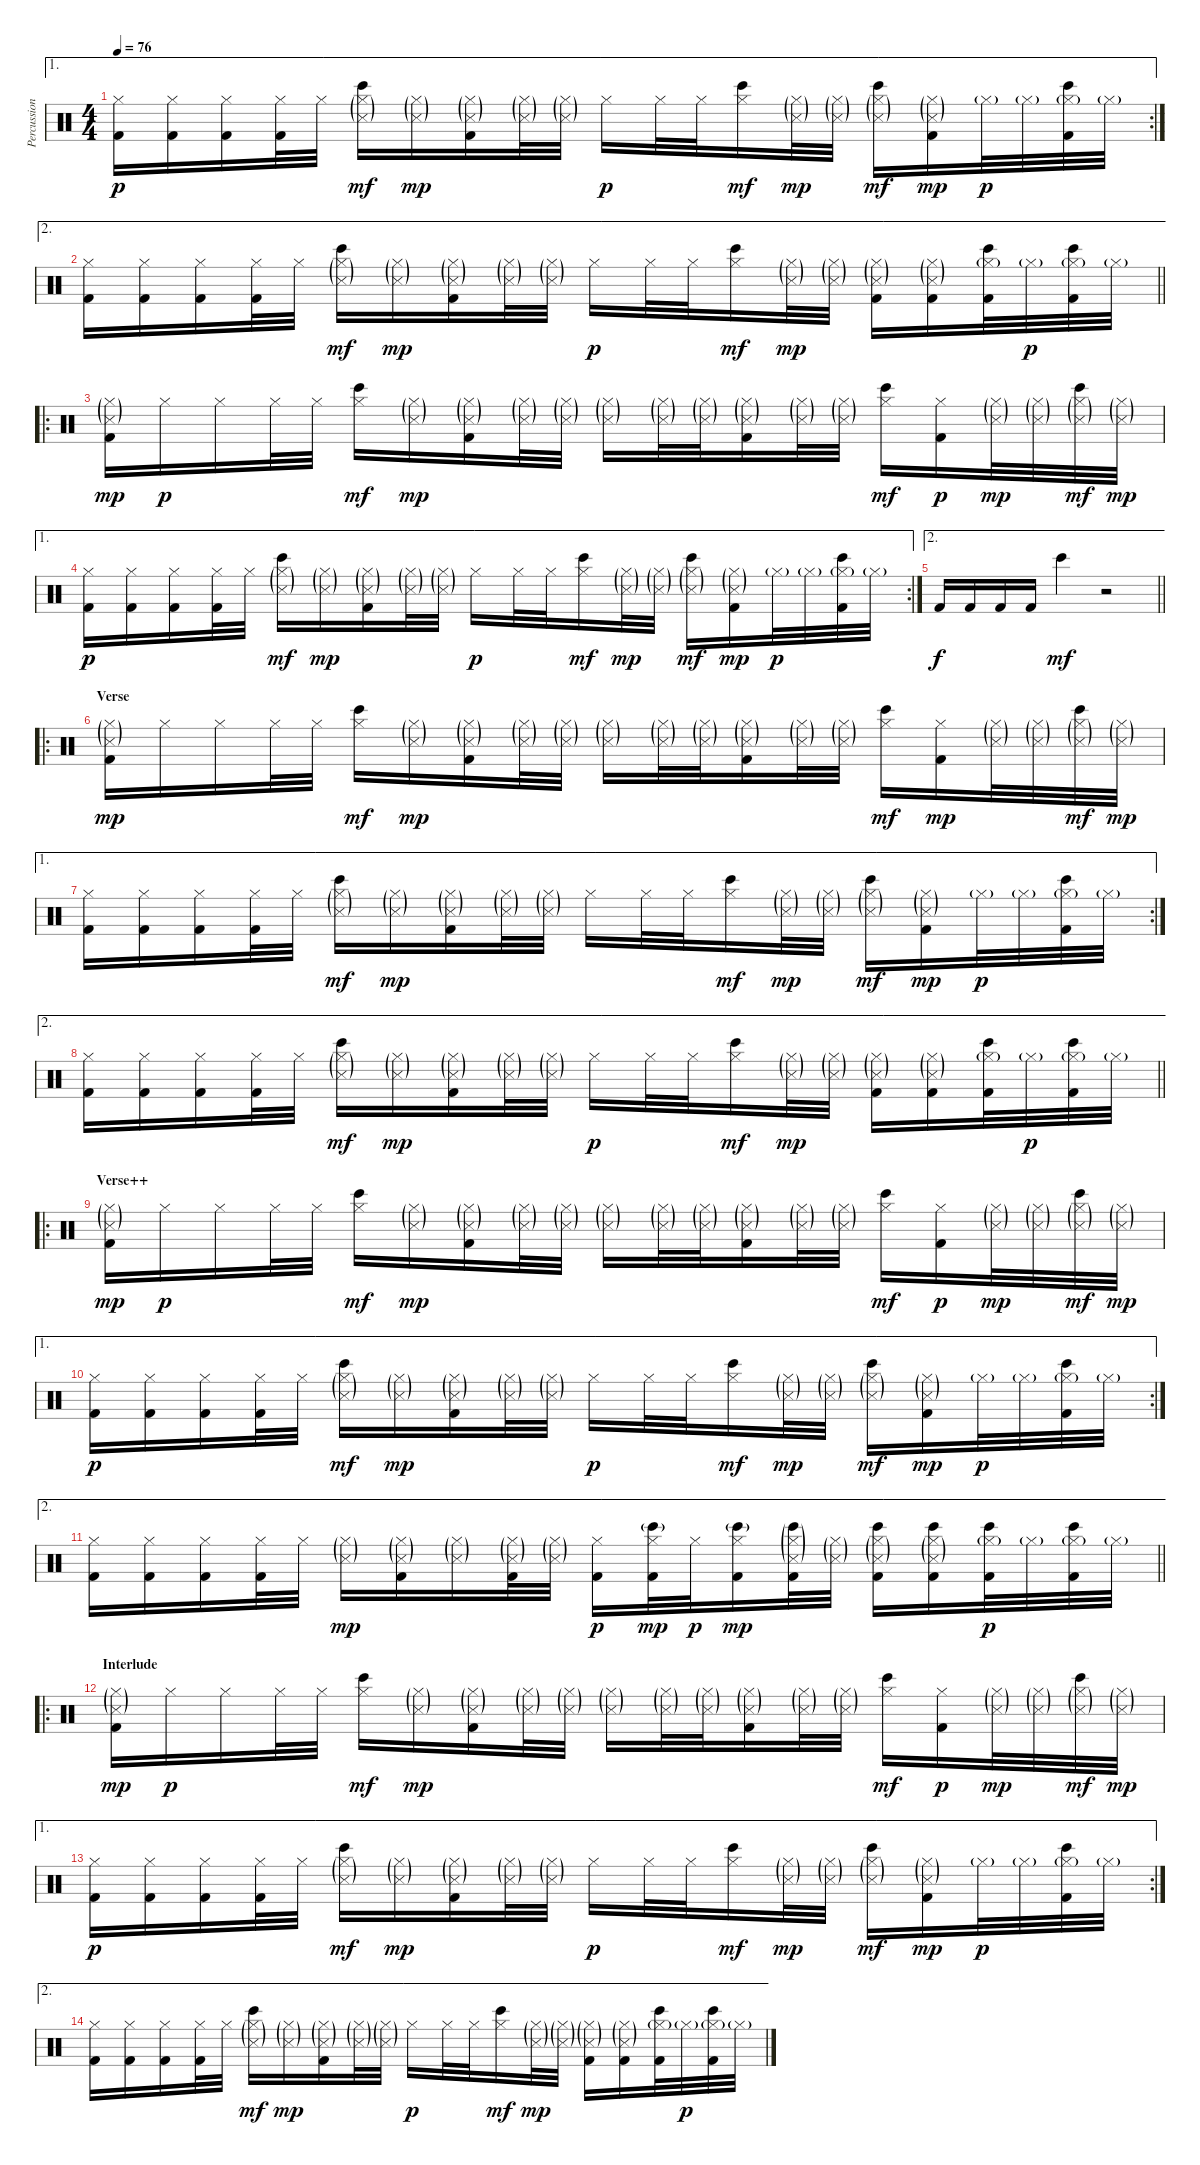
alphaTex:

\track ("Percussion" "Percussion") {instrument percussion}
\staff {score}
\articulation defaults
\ae 1
\rc 2
\ts (4 4)
\tempo 76
\clef neutral
\ks c
("Hi-Hat (closed)" "Kick (hit) 2").16{dy p} ("Hi-Hat (closed)" "Kick (hit) 2").16 ("Hi-Hat (closed)" "Kick (hit) 2").16 ("Hi-Hat (closed)" "Kick (hit) 2").32 "Hi-Hat (closed)".32 ("Hi-Hat (closed)"{g} "Snare (side stick) 3"{g} "Bongo High (hit)").16{dy mf} ("Hi-Hat (closed)"{g} "Snare (side stick) 3"{g}).16{dy mp} ("Hi-Hat (closed)"{g} "Snare (side stick) 3"{g} "Kick (hit) 2").16 ("Hi-Hat (closed)"{g} "Snare (side stick) 3"{g}).32 ("Hi-Hat (closed)"{g} "Snare (side stick) 3"{g}).32 "Hi-Hat (closed)".16{dy p} "Hi-Hat (closed)".32 "Hi-Hat (closed)".32 ("Hi-Hat (closed)" "Bongo High (hit)").16{dy mf} ("Hi-Hat (closed)"{g} "Snare (side stick) 3"{g}).32{dy mp} ("Hi-Hat (closed)"{g} "Snare (side stick) 3"{g}).32 ("Hi-Hat (closed)"{g} "Snare (side stick) 3"{g} "Bongo High (hit)").16{dy mf} ("Hi-Hat (closed)"{g} "Snare (side stick) 3"{g} "Kick (hit) 2").16{dy mp} "Hi-Hat (closed)"{g}.32{dy p} "Hi-Hat (closed)"{g}.32 ("Hi-Hat (closed)"{g} "Bongo High (hit)" "Kick (hit) 2").32 "Hi-Hat (closed)"{g}.32 |
\ae 2
\barLineRight lightlight
("Hi-Hat (closed)" "Kick (hit) 2").16 ("Hi-Hat (closed)" "Kick (hit) 2").16 ("Hi-Hat (closed)" "Kick (hit) 2").16 ("Hi-Hat (closed)" "Kick (hit) 2").32 "Hi-Hat (closed)".32 ("Hi-Hat (closed)"{g} "Snare (side stick) 3"{g} "Bongo High (hit)").16{dy mf} ("Hi-Hat (closed)"{g} "Snare (side stick) 3"{g}).16{dy mp} ("Hi-Hat (closed)"{g} "Snare (side stick) 3"{g} "Kick (hit) 2").16 ("Hi-Hat (closed)"{g} "Snare (side stick) 3"{g}).32 ("Hi-Hat (closed)"{g} "Snare (side stick) 3"{g}).32 "Hi-Hat (closed)".16{dy p} "Hi-Hat (closed)".32 "Hi-Hat (closed)".32 ("Hi-Hat (closed)" "Bongo High (hit)").16{dy mf} ("Hi-Hat (closed)"{g} "Snare (side stick) 3"{g}).32{dy mp} ("Hi-Hat (closed)"{g} "Snare (side stick) 3"{g}).32 ("Hi-Hat (closed)"{g} "Snare (side stick) 3"{g} "Kick (hit) 2").16 ("Hi-Hat (closed)"{g} "Snare (side stick) 3"{g} "Kick (hit) 2").16 ("Hi-Hat (closed)"{g} "Bongo High (hit)" "Kick (hit) 2").32 "Hi-Hat (closed)"{g}.32{dy p} ("Hi-Hat (closed)"{g} "Bongo High (hit)" "Kick (hit) 2").32 "Hi-Hat (closed)"{g}.32 |
\ro
("Hi-Hat (closed)"{g} "Snare (side stick) 3"{g} "Kick (hit) 2").16{dy mp} "Hi-Hat (closed)".16{dy p} "Hi-Hat (closed)".16 "Hi-Hat (closed)".32 "Hi-Hat (closed)".32 ("Hi-Hat (closed)" "Bongo High (hit)").16{dy mf} ("Hi-Hat (closed)"{g} "Snare (side stick) 3"{g}).16{dy mp} ("Hi-Hat (closed)"{g} "Snare (side stick) 3"{g} "Kick (hit) 2").16 ("Hi-Hat (closed)"{g} "Snare (side stick) 3"{g}).32 ("Hi-Hat (closed)"{g} "Snare (side stick) 3"{g}).32 ("Hi-Hat (closed)"{g} "Snare (side stick) 3"{g}).16 ("Hi-Hat (closed)"{g} "Snare (side stick) 3"{g}).32 ("Hi-Hat (closed)"{g} "Snare (side stick) 3"{g}).32 ("Hi-Hat (closed)"{g} "Snare (side stick) 3"{g} "Kick (hit) 2").16 ("Hi-Hat (closed)"{g} "Snare (side stick) 3"{g}).32 ("Hi-Hat (closed)"{g} "Snare (side stick) 3"{g}).32 ("Hi-Hat (closed)" "Bongo High (hit)").16{dy mf} ("Hi-Hat (closed)" "Kick (hit) 2").16{dy p} ("Hi-Hat (closed)"{g} "Snare (side stick) 3"{g}).32{dy mp} ("Hi-Hat (closed)"{g} "Snare (side stick) 3"{g}).32 ("Hi-Hat (closed)"{g} "Snare (side stick) 3"{g} "Bongo High (hit)").32{dy mf} ("Hi-Hat (closed)"{g} "Snare (side stick) 3"{g}).32{dy mp} |
\ae 1
\rc 2
("Hi-Hat (closed)" "Kick (hit) 2").16{dy p} ("Hi-Hat (closed)" "Kick (hit) 2").16 ("Hi-Hat (closed)" "Kick (hit) 2").16 ("Hi-Hat (closed)" "Kick (hit) 2").32 "Hi-Hat (closed)".32 ("Hi-Hat (closed)"{g} "Snare (side stick) 3"{g} "Bongo High (hit)").16{dy mf} ("Hi-Hat (closed)"{g} "Snare (side stick) 3"{g}).16{dy mp} ("Hi-Hat (closed)"{g} "Snare (side stick) 3"{g} "Kick (hit) 2").16 ("Hi-Hat (closed)"{g} "Snare (side stick) 3"{g}).32 ("Hi-Hat (closed)"{g} "Snare (side stick) 3"{g}).32 "Hi-Hat (closed)".16{dy p} "Hi-Hat (closed)".32 "Hi-Hat (closed)".32 ("Hi-Hat (closed)" "Bongo High (hit)").16{dy mf} ("Hi-Hat (closed)"{g} "Snare (side stick) 3"{g}).32{dy mp} ("Hi-Hat (closed)"{g} "Snare (side stick) 3"{g}).32 ("Hi-Hat (closed)"{g} "Snare (side stick) 3"{g} "Bongo High (hit)").16{dy mf} ("Hi-Hat (closed)"{g} "Snare (side stick) 3"{g} "Kick (hit) 2").16{dy mp} "Hi-Hat (closed)"{g}.32{dy p} "Hi-Hat (closed)"{g}.32 ("Hi-Hat (closed)"{g} "Bongo High (hit)" "Kick (hit) 2").32 "Hi-Hat (closed)"{g}.32 |
\ae 2
\barLineRight lightlight "Kick (hit) 2".16{dy f} "Kick (hit) 2".16 "Kick (hit) 2".16 "Kick (hit) 2".16 "Bongo High (hit)".4{dy mf}
r.2 |
\ro
\section ("" "Verse")
("Hi-Hat (closed)"{g} "Snare (side stick) 3"{g} "Kick (hit) 2").16{dy mp} "Hi-Hat (closed)".16 "Hi-Hat (closed)".16 "Hi-Hat (closed)".32 "Hi-Hat (closed)".32 ("Hi-Hat (closed)" "Bongo High (hit)").16{dy mf} ("Hi-Hat (closed)"{g} "Snare (side stick) 3"{g}).16{dy mp} ("Hi-Hat (closed)"{g} "Snare (side stick) 3"{g} "Kick (hit) 2").16 ("Hi-Hat (closed)"{g} "Snare (side stick) 3"{g}).32 ("Hi-Hat (closed)"{g} "Snare (side stick) 3"{g}).32 ("Hi-Hat (closed)"{g} "Snare (side stick) 3"{g}).16 ("Hi-Hat (closed)"{g} "Snare (side stick) 3"{g}).32 ("Hi-Hat (closed)"{g} "Snare (side stick) 3"{g}).32 ("Hi-Hat (closed)"{g} "Snare (side stick) 3"{g} "Kick (hit) 2").16 ("Hi-Hat (closed)"{g} "Snare (side stick) 3"{g}).32 ("Hi-Hat (closed)"{g} "Snare (side stick) 3"{g}).32 ("Hi-Hat (closed)" "Bongo High (hit)").16{dy mf} ("Hi-Hat (closed)" "Kick (hit) 2").16{dy mp} ("Hi-Hat (closed)"{g} "Snare (side stick) 3"{g}).32 ("Hi-Hat (closed)"{g} "Snare (side stick) 3"{g}).32 ("Hi-Hat (closed)"{g} "Snare (side stick) 3"{g} "Bongo High (hit)").32{dy mf} ("Hi-Hat (closed)"{g} "Snare (side stick) 3"{g}).32{dy mp} |
\ae 1
\rc 2
("Hi-Hat (closed)" "Kick (hit) 2").16 ("Hi-Hat (closed)" "Kick (hit) 2").16 ("Hi-Hat (closed)" "Kick (hit) 2").16 ("Hi-Hat (closed)" "Kick (hit) 2").32 "Hi-Hat (closed)".32 ("Hi-Hat (closed)"{g} "Snare (side stick) 3"{g} "Bongo High (hit)").16{dy mf} ("Hi-Hat (closed)"{g} "Snare (side stick) 3"{g}).16{dy mp} ("Hi-Hat (closed)"{g} "Snare (side stick) 3"{g} "Kick (hit) 2").16 ("Hi-Hat (closed)"{g} "Snare (side stick) 3"{g}).32 ("Hi-Hat (closed)"{g} "Snare (side stick) 3"{g}).32 "Hi-Hat (closed)".16 "Hi-Hat (closed)".32 "Hi-Hat (closed)".32 ("Hi-Hat (closed)" "Bongo High (hit)").16{dy mf} ("Hi-Hat (closed)"{g} "Snare (side stick) 3"{g}).32{dy mp} ("Hi-Hat (closed)"{g} "Snare (side stick) 3"{g}).32 ("Hi-Hat (closed)"{g} "Snare (side stick) 3"{g} "Bongo High (hit)").16{dy mf} ("Hi-Hat (closed)"{g} "Snare (side stick) 3"{g} "Kick (hit) 2").16{dy mp} "Hi-Hat (closed)"{g}.32{dy p} "Hi-Hat (closed)"{g}.32 ("Hi-Hat (closed)"{g} "Bongo High (hit)" "Kick (hit) 2").32 "Hi-Hat (closed)"{g}.32 |
\ae 2
\barLineRight lightlight
("Hi-Hat (closed)" "Kick (hit) 2").16 ("Hi-Hat (closed)" "Kick (hit) 2").16 ("Hi-Hat (closed)" "Kick (hit) 2").16 ("Hi-Hat (closed)" "Kick (hit) 2").32 "Hi-Hat (closed)".32 ("Hi-Hat (closed)"{g} "Snare (side stick) 3"{g} "Bongo High (hit)").16{dy mf} ("Hi-Hat (closed)"{g} "Snare (side stick) 3"{g}).16{dy mp} ("Hi-Hat (closed)"{g} "Snare (side stick) 3"{g} "Kick (hit) 2").16 ("Hi-Hat (closed)"{g} "Snare (side stick) 3"{g}).32 ("Hi-Hat (closed)"{g} "Snare (side stick) 3"{g}).32 "Hi-Hat (closed)".16{dy p} "Hi-Hat (closed)".32 "Hi-Hat (closed)".32 ("Hi-Hat (closed)" "Bongo High (hit)").16{dy mf} ("Hi-Hat (closed)"{g} "Snare (side stick) 3"{g}).32{dy mp} ("Hi-Hat (closed)"{g} "Snare (side stick) 3"{g}).32 ("Hi-Hat (closed)"{g} "Snare (side stick) 3"{g} "Kick (hit) 2").16 ("Hi-Hat (closed)"{g} "Snare (side stick) 3"{g} "Kick (hit) 2").16 ("Hi-Hat (closed)"{g} "Bongo High (hit)" "Kick (hit) 2").32 "Hi-Hat (closed)"{g}.32{dy p} ("Hi-Hat (closed)"{g} "Bongo High (hit)" "Kick (hit) 2").32 "Hi-Hat (closed)"{g}.32 |
\ro
\section ("" "Verse++")
("Hi-Hat (closed)"{g} "Snare (side stick) 3"{g} "Kick (hit) 2").16{dy mp} "Hi-Hat (closed)".16{dy p} "Hi-Hat (closed)".16 "Hi-Hat (closed)".32 "Hi-Hat (closed)".32 ("Hi-Hat (closed)" "Bongo High (hit)").16{dy mf} ("Hi-Hat (closed)"{g} "Snare (side stick) 3"{g}).16{dy mp} ("Hi-Hat (closed)"{g} "Snare (side stick) 3"{g} "Kick (hit) 2").16 ("Hi-Hat (closed)"{g} "Snare (side stick) 3"{g}).32 ("Hi-Hat (closed)"{g} "Snare (side stick) 3"{g}).32 ("Hi-Hat (closed)"{g} "Snare (side stick) 3"{g}).16 ("Hi-Hat (closed)"{g} "Snare (side stick) 3"{g}).32 ("Hi-Hat (closed)"{g} "Snare (side stick) 3"{g}).32 ("Hi-Hat (closed)"{g} "Snare (side stick) 3"{g} "Kick (hit) 2").16 ("Hi-Hat (closed)"{g} "Snare (side stick) 3"{g}).32 ("Hi-Hat (closed)"{g} "Snare (side stick) 3"{g}).32 ("Hi-Hat (closed)" "Bongo High (hit)").16{dy mf} ("Hi-Hat (closed)" "Kick (hit) 2").16{dy p} ("Hi-Hat (closed)"{g} "Snare (side stick) 3"{g}).32{dy mp} ("Hi-Hat (closed)"{g} "Snare (side stick) 3"{g}).32 ("Hi-Hat (closed)"{g} "Snare (side stick) 3"{g} "Bongo High (hit)").32{dy mf} ("Hi-Hat (closed)"{g} "Snare (side stick) 3"{g}).32{dy mp} |
\ae 1
\rc 2
("Hi-Hat (closed)" "Kick (hit) 2").16{dy p} ("Hi-Hat (closed)" "Kick (hit) 2").16 ("Hi-Hat (closed)" "Kick (hit) 2").16 ("Hi-Hat (closed)" "Kick (hit) 2").32 "Hi-Hat (closed)".32 ("Hi-Hat (closed)"{g} "Snare (side stick) 3"{g} "Bongo High (hit)").16{dy mf} ("Hi-Hat (closed)"{g} "Snare (side stick) 3"{g}).16{dy mp} ("Hi-Hat (closed)"{g} "Snare (side stick) 3"{g} "Kick (hit) 2").16 ("Hi-Hat (closed)"{g} "Snare (side stick) 3"{g}).32 ("Hi-Hat (closed)"{g} "Snare (side stick) 3"{g}).32 "Hi-Hat (closed)".16{dy p} "Hi-Hat (closed)".32 "Hi-Hat (closed)".32 ("Hi-Hat (closed)" "Bongo High (hit)").16{dy mf} ("Hi-Hat (closed)"{g} "Snare (side stick) 3"{g}).32{dy mp} ("Hi-Hat (closed)"{g} "Snare (side stick) 3"{g}).32 ("Hi-Hat (closed)"{g} "Snare (side stick) 3"{g} "Bongo High (hit)").16{dy mf} ("Hi-Hat (closed)"{g} "Snare (side stick) 3"{g} "Kick (hit) 2").16{dy mp} "Hi-Hat (closed)"{g}.32{dy p} "Hi-Hat (closed)"{g}.32 ("Hi-Hat (closed)"{g} "Bongo High (hit)" "Kick (hit) 2").32 "Hi-Hat (closed)"{g}.32 |
\ae 2
\barLineRight lightlight
("Hi-Hat (closed)" "Kick (hit) 2").16 ("Hi-Hat (closed)" "Kick (hit) 2").16 ("Hi-Hat (closed)" "Kick (hit) 2").16 ("Hi-Hat (closed)" "Kick (hit) 2").32 "Hi-Hat (closed)".32 ("Hi-Hat (closed)"{g} "Snare (side stick) 3"{g}).16{dy mp} ("Hi-Hat (closed)"{g} "Snare (side stick) 3"{g} "Kick (hit) 2").16 ("Hi-Hat (closed)"{g} "Snare (side stick) 3"{g}).16 ("Hi-Hat (closed)"{g} "Snare (side stick) 3"{g} "Kick (hit) 2").32 ("Hi-Hat (closed)"{g} "Snare (side stick) 3"{g}).32 ("Hi-Hat (closed)" "Kick (hit) 2").16{dy p} ("Hi-Hat (closed)" "Bongo High (hit)"{g} "Kick (hit) 2").32{dy mp} "Hi-Hat (closed)".32{dy p} ("Hi-Hat (closed)" "Bongo High (hit)"{g} "Kick (hit) 2").16{dy mp} ("Hi-Hat (closed)"{g} "Snare (side stick) 3"{g} "Bongo High (hit)"{g} "Kick (hit) 2").32 ("Hi-Hat (closed)"{g} "Snare (side stick) 3"{g}).32 ("Hi-Hat (closed)"{g} "Snare (side stick) 3"{g} "Bongo High (hit)" "Kick (hit) 2").16 ("Hi-Hat (closed)"{g} "Snare (side stick) 3"{g} "Bongo High (hit)" "Kick (hit) 2").16 ("Hi-Hat (closed)"{g} "Bongo High (hit)" "Kick (hit) 2").32{dy p} "Hi-Hat (closed)"{g}.32 ("Hi-Hat (closed)"{g} "Bongo High (hit)" "Kick (hit) 2").32 "Hi-Hat (closed)"{g}.32 |
\ro
\section ("" "Interlude")
("Hi-Hat (closed)"{g} "Snare (side stick) 3"{g} "Kick (hit) 2").16{dy mp} "Hi-Hat (closed)".16{dy p} "Hi-Hat (closed)".16 "Hi-Hat (closed)".32 "Hi-Hat (closed)".32 ("Hi-Hat (closed)" "Bongo High (hit)").16{dy mf} ("Hi-Hat (closed)"{g} "Snare (side stick) 3"{g}).16{dy mp} ("Hi-Hat (closed)"{g} "Snare (side stick) 3"{g} "Kick (hit) 2").16 ("Hi-Hat (closed)"{g} "Snare (side stick) 3"{g}).32 ("Hi-Hat (closed)"{g} "Snare (side stick) 3"{g}).32 ("Hi-Hat (closed)"{g} "Snare (side stick) 3"{g}).16 ("Hi-Hat (closed)"{g} "Snare (side stick) 3"{g}).32 ("Hi-Hat (closed)"{g} "Snare (side stick) 3"{g}).32 ("Hi-Hat (closed)"{g} "Snare (side stick) 3"{g} "Kick (hit) 2").16 ("Hi-Hat (closed)"{g} "Snare (side stick) 3"{g}).32 ("Hi-Hat (closed)"{g} "Snare (side stick) 3"{g}).32 ("Hi-Hat (closed)" "Bongo High (hit)").16{dy mf} ("Hi-Hat (closed)" "Kick (hit) 2").16{dy p} ("Hi-Hat (closed)"{g} "Snare (side stick) 3"{g}).32{dy mp} ("Hi-Hat (closed)"{g} "Snare (side stick) 3"{g}).32 ("Hi-Hat (closed)"{g} "Snare (side stick) 3"{g} "Bongo High (hit)").32{dy mf} ("Hi-Hat (closed)"{g} "Snare (side stick) 3"{g}).32{dy mp} |
\ae 1
\rc 2
("Hi-Hat (closed)" "Kick (hit) 2").16{dy p} ("Hi-Hat (closed)" "Kick (hit) 2").16 ("Hi-Hat (closed)" "Kick (hit) 2").16 ("Hi-Hat (closed)" "Kick (hit) 2").32 "Hi-Hat (closed)".32 ("Hi-Hat (closed)"{g} "Snare (side stick) 3"{g} "Bongo High (hit)").16{dy mf} ("Hi-Hat (closed)"{g} "Snare (side stick) 3"{g}).16{dy mp} ("Hi-Hat (closed)"{g} "Snare (side stick) 3"{g} "Kick (hit) 2").16 ("Hi-Hat (closed)"{g} "Snare (side stick) 3"{g}).32 ("Hi-Hat (closed)"{g} "Snare (side stick) 3"{g}).32 "Hi-Hat (closed)".16{dy p} "Hi-Hat (closed)".32 "Hi-Hat (closed)".32 ("Hi-Hat (closed)" "Bongo High (hit)").16{dy mf} ("Hi-Hat (closed)"{g} "Snare (side stick) 3"{g}).32{dy mp} ("Hi-Hat (closed)"{g} "Snare (side stick) 3"{g}).32 ("Hi-Hat (closed)"{g} "Snare (side stick) 3"{g} "Bongo High (hit)").16{dy mf} ("Hi-Hat (closed)"{g} "Snare (side stick) 3"{g} "Kick (hit) 2").16{dy mp} "Hi-Hat (closed)"{g}.32{dy p} "Hi-Hat (closed)"{g}.32 ("Hi-Hat (closed)"{g} "Bongo High (hit)" "Kick (hit) 2").32 "Hi-Hat (closed)"{g}.32 |
\ae 2
("Hi-Hat (closed)" "Kick (hit) 2").16 ("Hi-Hat (closed)" "Kick (hit) 2").16 ("Hi-Hat (closed)" "Kick (hit) 2").16 ("Hi-Hat (closed)" "Kick (hit) 2").32 "Hi-Hat (closed)".32 ("Hi-Hat (closed)"{g} "Snare (side stick) 3"{g} "Bongo High (hit)").16{dy mf} ("Hi-Hat (closed)"{g} "Snare (side stick) 3"{g}).16{dy mp} ("Hi-Hat (closed)"{g} "Snare (side stick) 3"{g} "Kick (hit) 2").16 ("Hi-Hat (closed)"{g} "Snare (side stick) 3"{g}).32 ("Hi-Hat (closed)"{g} "Snare (side stick) 3"{g}).32 "Hi-Hat (closed)".16{dy p} "Hi-Hat (closed)".32 "Hi-Hat (closed)".32 ("Hi-Hat (closed)" "Bongo High (hit)").16{dy mf} ("Hi-Hat (closed)"{g} "Snare (side stick) 3"{g}).32{dy mp} ("Hi-Hat (closed)"{g} "Snare (side stick) 3"{g}).32 ("Hi-Hat (closed)"{g} "Snare (side stick) 3"{g} "Kick (hit) 2").16 ("Hi-Hat (closed)"{g} "Snare (side stick) 3"{g} "Kick (hit) 2").16 ("Hi-Hat (closed)"{g} "Bongo High (hit)" "Kick (hit) 2").32 "Hi-Hat (closed)"{g}.32{dy p} ("Hi-Hat (closed)"{g} "Bongo High (hit)" "Kick (hit) 2").32 "Hi-Hat (closed)"{g}.32
